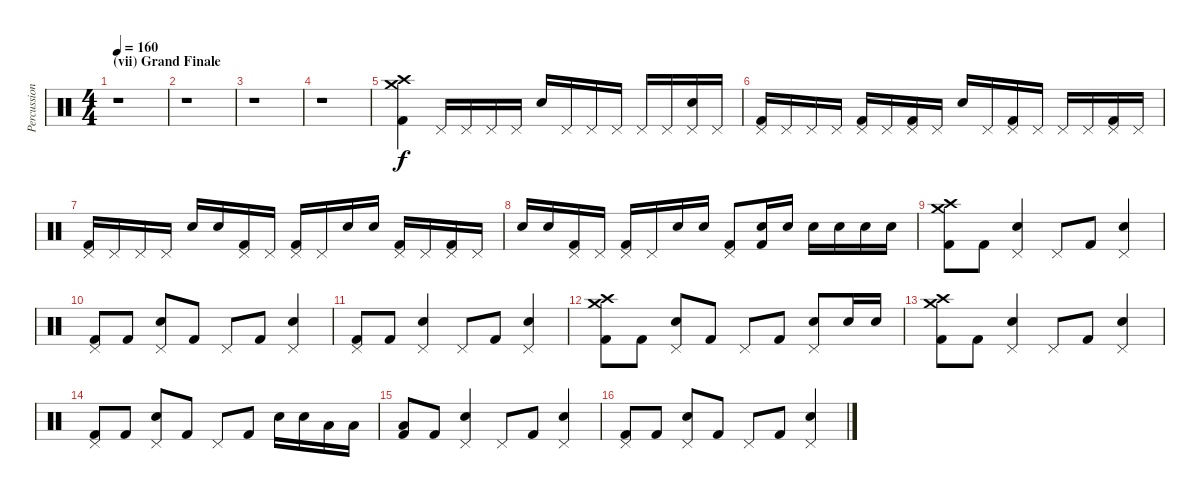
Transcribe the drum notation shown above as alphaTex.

\track ("Percussion" "Percussion") {instrument percussion}
\staff {score}
\articulation defaults
\ts (4 4)
\section ("" "(vii) Grand Finale")
\tempo 160
\clef neutral
\ks c
r.1{dy f} |
r.1 |
r.1 |
r.1 |
("Kick (hit) 2" "Crash high (hit)" "Crash medium (hit)").4 "Pedal Hi-Hat (hit)".16 "Pedal Hi-Hat (hit)".16 "Pedal Hi-Hat (hit)".16 "Pedal Hi-Hat (hit)".16 "Snare (hit) 2".16 "Pedal Hi-Hat (hit)".16 "Pedal Hi-Hat (hit)".16 "Pedal Hi-Hat (hit)".16 "Pedal Hi-Hat (hit)".16 "Pedal Hi-Hat (hit)".16 ("Snare (hit) 2" "Pedal Hi-Hat (hit)").16 "Pedal Hi-Hat (hit)".16 |
("Kick (hit) 2" "Pedal Hi-Hat (hit)").16 "Pedal Hi-Hat (hit)".16 "Pedal Hi-Hat (hit)".16 "Pedal Hi-Hat (hit)".16 ("Kick (hit) 2" "Pedal Hi-Hat (hit)").16 "Pedal Hi-Hat (hit)".16 ("Kick (hit) 2" "Pedal Hi-Hat (hit)").16 "Pedal Hi-Hat (hit)".16 "Snare (hit) 2".16 "Pedal Hi-Hat (hit)".16 ("Kick (hit) 2" "Pedal Hi-Hat (hit)").16 "Pedal Hi-Hat (hit)".16 "Pedal Hi-Hat (hit)".16 "Pedal Hi-Hat (hit)".16 ("Kick (hit) 2" "Pedal Hi-Hat (hit)").16 "Pedal Hi-Hat (hit)".16 |
("Kick (hit) 2" "Pedal Hi-Hat (hit)").16 "Pedal Hi-Hat (hit)".16 "Pedal Hi-Hat (hit)".16 "Pedal Hi-Hat (hit)".16 "Snare (hit) 2".16 "Snare (hit) 2".16 ("Kick (hit) 2" "Pedal Hi-Hat (hit)").16 "Pedal Hi-Hat (hit)".16 ("Kick (hit) 2" "Pedal Hi-Hat (hit)").16 "Pedal Hi-Hat (hit)".16 "Snare (hit) 2".16 "Snare (hit) 2".16 ("Kick (hit) 2" "Pedal Hi-Hat (hit)").16 "Pedal Hi-Hat (hit)".16 ("Kick (hit) 2" "Pedal Hi-Hat (hit)").16 "Pedal Hi-Hat (hit)".16 |
"Snare (hit) 2".16 "Snare (hit) 2".16 ("Kick (hit) 2" "Pedal Hi-Hat (hit)").16 "Pedal Hi-Hat (hit)".16 ("Kick (hit) 2" "Pedal Hi-Hat (hit)").16 "Pedal Hi-Hat (hit)".16 "Snare (hit) 2".16 "Snare (hit) 2".16 ("Kick (hit) 2" "Pedal Hi-Hat (hit)").8 ("Snare (hit) 2" "Kick (hit) 2").16 "Snare (hit) 2".16 "Snare (hit) 2".16 "Snare (hit) 2".16 "Snare (hit) 2".16 "Snare (hit) 2".16 |
("Kick (hit) 2" "Crash high (hit)" "Crash medium (hit)").8 "Kick (hit) 2".8 ("Snare (hit) 2" "Pedal Hi-Hat (hit)").4 "Pedal Hi-Hat (hit)".8 "Kick (hit) 2".8 ("Snare (hit) 2" "Pedal Hi-Hat (hit)").4 |
("Kick (hit) 2" "Pedal Hi-Hat (hit)").8 "Kick (hit) 2".8 ("Snare (hit) 2" "Pedal Hi-Hat (hit)").8 "Kick (hit) 2".8 "Pedal Hi-Hat (hit)".8 "Kick (hit) 2".8 ("Snare (hit) 2" "Pedal Hi-Hat (hit)").4 |
("Kick (hit) 2" "Pedal Hi-Hat (hit)").8 "Kick (hit) 2".8 ("Snare (hit) 2" "Pedal Hi-Hat (hit)").4 "Pedal Hi-Hat (hit)".8 "Kick (hit) 2".8 ("Snare (hit) 2" "Pedal Hi-Hat (hit)").4 |
("Kick (hit) 2" "Crash high (hit)" "Crash medium (hit)").8 "Kick (hit) 2".8 ("Snare (hit) 2" "Pedal Hi-Hat (hit)").8 "Kick (hit) 2".8 "Pedal Hi-Hat (hit)".8 "Kick (hit) 2".8 ("Snare (hit) 2" "Pedal Hi-Hat (hit)").8 "Snare (hit) 2".16 "Snare (hit) 2".16 |
("Kick (hit) 2" "Crash high (hit)" "Crash medium (hit)").8 "Kick (hit) 2".8 ("Snare (hit) 2" "Pedal Hi-Hat (hit)").4 "Pedal Hi-Hat (hit)".8 "Kick (hit) 2".8 ("Snare (hit) 2" "Pedal Hi-Hat (hit)").4 |
("Kick (hit) 2" "Pedal Hi-Hat (hit)").8 "Kick (hit) 2".8 ("Snare (hit) 2" "Pedal Hi-Hat (hit)").8 "Kick (hit) 2".8 "Pedal Hi-Hat (hit)".8 "Kick (hit) 2".8 "Snare (hit) 2".16 "Snare (hit) 2".16 "Low Floor Tom (hit)".16 "Low Floor Tom (hit)".16 |
("Kick (hit) 2" "Low Floor Tom (hit)").8 "Kick (hit) 2".8 ("Snare (hit) 2" "Pedal Hi-Hat (hit)").4 "Pedal Hi-Hat (hit)".8 "Kick (hit) 2".8 ("Snare (hit) 2" "Pedal Hi-Hat (hit)").4 |
("Kick (hit) 2" "Pedal Hi-Hat (hit)").8 "Kick (hit) 2".8 ("Snare (hit) 2" "Pedal Hi-Hat (hit)").8 "Kick (hit) 2".8 "Pedal Hi-Hat (hit)".8 "Kick (hit) 2".8 ("Snare (hit) 2" "Pedal Hi-Hat (hit)").4
